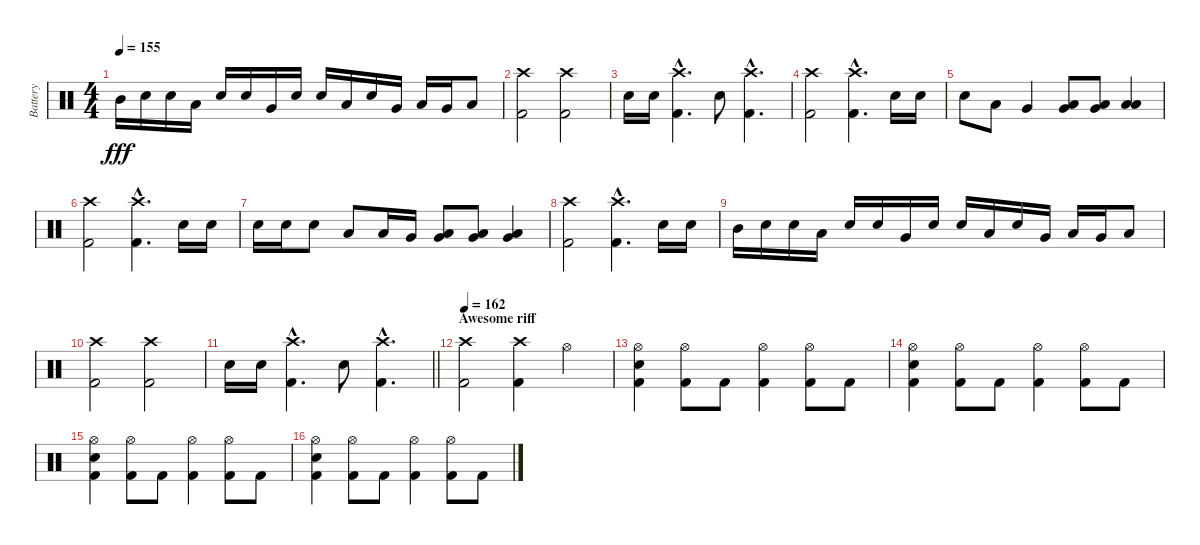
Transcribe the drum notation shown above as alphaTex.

\track ("Battery" "Battery") {instrument percussion}
\staff {score}
\articulation defaults
\ts (4 4)
\tempo 155
\clef neutral
\ks c "Mid Tom (hit)".16{dy fff} "Electric Snare (hit)".16 "Electric Snare (hit)".16 "Low Tom (hit)".16 "Electric Snare (hit)".16 "Electric Snare (hit)".16 "Very Low Tom (hit)".16 "Electric Snare (hit)".16 "Electric Snare (hit)".16 "Low Floor Tom (hit)".16 "Electric Snare (hit)".16 "Very Low Tom (hit)".16 "Low Tom (hit)".16 "Very Low Tom (hit)".16 "Low Floor Tom (hit)".8
|
("Crash high (hit)" "Kick (hit) 2").2 ("Crash high (hit)" "Kick (hit) 2").2 |
"Electric Snare (hit)".16 "Electric Snare (hit)".16 ("Crash high (hit)"{hac} "Kick (hit) 2"{hac}).4{d} "Electric Snare (hit)".8 ("Crash high (hit)"{hac} "Kick (hit) 2"{hac}).4{d} |
("Crash high (hit)" "Kick (hit) 2").2 ("Crash high (hit)"{hac} "Kick (hit) 2"{hac}).4{d} "Electric Snare (hit)".16 "Electric Snare (hit)".16 |
"Electric Snare (hit)".8 "Low Tom (hit)".8 "Very Low Tom (hit)".4 ("Very Low Tom (hit)" "Low Floor Tom (hit)").8 ("Low Tom (hit)" "Very Low Tom (hit)").8 ("Low Floor Tom (hit)" "Low Floor Tom (hit)").4 |
("Crash high (hit)" "Kick (hit) 2").2 ("Crash high (hit)"{hac} "Kick (hit) 2"{hac}).4{d} "Electric Snare (hit)".16 "Electric Snare (hit)".16 |
"Electric Snare (hit)".16 "Electric Snare (hit)".16 "Electric Snare (hit)".8 "Low Tom (hit)".8 "Low Tom (hit)".16 "Very Low Tom (hit)".16 ("Very Low Tom (hit)" "Low Floor Tom (hit)").8 ("Very Low Tom (hit)" "Low Floor Tom (hit)").8 ("Very Low Tom (hit)" "Low Floor Tom (hit)").4 |
("Crash high (hit)" "Kick (hit) 2").2 ("Crash high (hit)"{hac} "Kick (hit) 2"{hac}).4{d} "Electric Snare (hit)".16 "Electric Snare (hit)".16 |
"Mid Tom (hit)".16 "Electric Snare (hit)".16 "Electric Snare (hit)".16 "Low Tom (hit)".16 "Electric Snare (hit)".16 "Electric Snare (hit)".16 "Very Low Tom (hit)".16 "Electric Snare (hit)".16 "Electric Snare (hit)".16 "Low Floor Tom (hit)".16 "Electric Snare (hit)".16 "Very Low Tom (hit)".16 "Low Tom (hit)".16 "Very Low Tom (hit)".16 "Low Floor Tom (hit)".8 |
("Crash high (hit)" "Kick (hit) 2").2 ("Crash high (hit)" "Kick (hit) 2").2 |
\barLineRight lightlight "Electric Snare (hit)".16 "Electric Snare (hit)".16
("Crash high (hit)"{hac} "Kick (hit) 2"{hac}).4{d} "Electric Snare (hit)".8 ("Crash high (hit)"{hac} "Kick (hit) 2"{hac}).4{d} |
\section ("" "Awesome riff")
\tempo 162
("Crash high (hit)" "Kick (hit) 2").2 ("Crash high (hit)" "Kick (hit) 2").4 "Hi-Hat (open)".4 |
("Hi-Hat (open)" "Electric Snare (hit)" "Kick (hit) 2").4 ("Hi-Hat (open)" "Kick (hit) 2").8 "Kick (hit) 2".8 ("Hi-Hat (open)" "Kick (hit) 2").4 ("Hi-Hat (open)" "Kick (hit) 2").8 "Kick (hit) 2".8 |
("Hi-Hat (open)" "Electric Snare (hit)" "Kick (hit) 2").4 ("Hi-Hat (open)" "Kick (hit) 2").8 "Kick (hit) 2".8 ("Hi-Hat (open)" "Kick (hit) 2").4 ("Hi-Hat (open)" "Kick (hit) 2").8 "Kick (hit) 2".8 |
("Hi-Hat (open)" "Electric Snare (hit)" "Kick (hit) 2").4 ("Hi-Hat (open)" "Kick (hit) 2").8 "Kick (hit) 2".8 ("Hi-Hat (open)" "Kick (hit) 2").4 ("Hi-Hat (open)" "Kick (hit) 2").8 "Kick (hit) 2".8 |
("Hi-Hat (open)" "Electric Snare (hit)" "Kick (hit) 2").4 ("Hi-Hat (open)" "Kick (hit) 2").8 "Kick (hit) 2".8 ("Hi-Hat (open)" "Kick (hit) 2").4 ("Hi-Hat (open)" "Kick (hit) 2").8 "Kick (hit) 2".8
